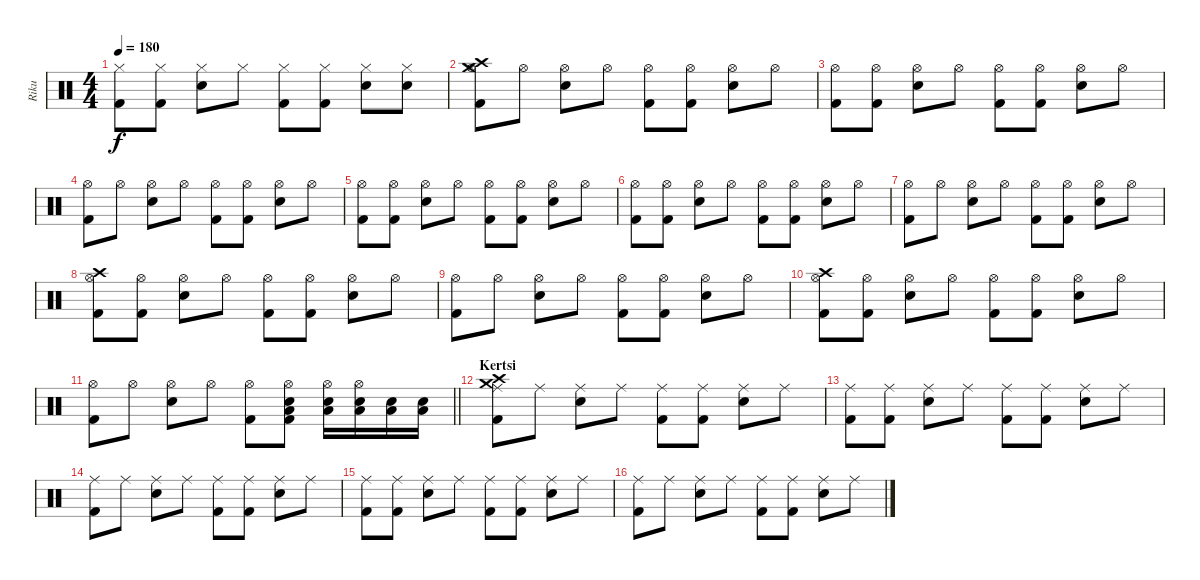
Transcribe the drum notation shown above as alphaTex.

\track ("Riku" "Riku") {instrument percussion}
\staff {score}
\articulation defaults
\ts (4 4)
\tempo 180
\clef neutral
\ks c
("Kick (hit) 2" "Hi-Hat (closed)").8{dy f} ("Kick (hit) 2" "Hi-Hat (closed)").8 ("Snare (hit) 2" "Hi-Hat (closed)").8 "Hi-Hat (closed)".8 ("Kick (hit) 2" "Hi-Hat (closed)").8 ("Kick (hit) 2" "Hi-Hat (closed)").8 ("Snare (hit) 2" "Hi-Hat (closed)").8 ("Snare (hit) 2" "Hi-Hat (closed)").8 |
("Kick (hit) 2" "Hi-Hat (open)" "Crash medium (hit)" "Crash high (hit)").8 "Hi-Hat (open)".8 ("Snare (hit) 2" "Hi-Hat (open)").8 "Hi-Hat (open)".8 ("Kick (hit) 2" "Hi-Hat (open)").8 ("Kick (hit) 2" "Hi-Hat (open)").8 ("Snare (hit) 2" "Hi-Hat (open)").8 "Hi-Hat (open)".8 |
("Kick (hit) 2" "Hi-Hat (open)").8 ("Kick (hit) 2" "Hi-Hat (open)").8 ("Snare (hit) 2" "Hi-Hat (open)").8 "Hi-Hat (open)".8 ("Kick (hit) 2" "Hi-Hat (open)").8 ("Kick (hit) 2" "Hi-Hat (open)").8 ("Snare (hit) 2" "Hi-Hat (open)").8 "Hi-Hat (open)".8 |
("Kick (hit) 2" "Hi-Hat (open)").8 "Hi-Hat (open)".8 ("Snare (hit) 2" "Hi-Hat (open)").8 "Hi-Hat (open)".8 ("Kick (hit) 2" "Hi-Hat (open)").8 ("Kick (hit) 2" "Hi-Hat (open)").8 ("Snare (hit) 2" "Hi-Hat (open)").8 "Hi-Hat (open)".8 |
("Kick (hit) 2" "Hi-Hat (open)").8 ("Kick (hit) 2" "Hi-Hat (open)").8 ("Snare (hit) 2" "Hi-Hat (open)").8 "Hi-Hat (open)".8 ("Kick (hit) 2" "Hi-Hat (open)").8 ("Kick (hit) 2" "Hi-Hat (open)").8 ("Snare (hit) 2" "Hi-Hat (open)").8 "Hi-Hat (open)".8 |
("Kick (hit) 2" "Hi-Hat (open)").8 ("Kick (hit) 2" "Hi-Hat (open)").8 ("Snare (hit) 2" "Hi-Hat (open)").8 "Hi-Hat (open)".8 ("Kick (hit) 2" "Hi-Hat (open)").8 ("Kick (hit) 2" "Hi-Hat (open)").8 ("Snare (hit) 2" "Hi-Hat (open)").8 "Hi-Hat (open)".8 |
("Kick (hit) 2" "Hi-Hat (open)").8 "Hi-Hat (open)".8 ("Snare (hit) 2" "Hi-Hat (open)").8 "Hi-Hat (open)".8 ("Kick (hit) 2" "Hi-Hat (open)").8 ("Kick (hit) 2" "Hi-Hat (open)").8 ("Snare (hit) 2" "Hi-Hat (open)").8 "Hi-Hat (open)".8 |
("Kick (hit) 2" "Hi-Hat (open)" "Crash high (hit)").8 ("Kick (hit) 2" "Hi-Hat (open)").8 ("Snare (hit) 2" "Hi-Hat (open)").8 "Hi-Hat (open)".8 ("Kick (hit) 2" "Hi-Hat (open)").8 ("Kick (hit) 2" "Hi-Hat (open)").8 ("Snare (hit) 2" "Hi-Hat (open)").8 "Hi-Hat (open)".8 |
("Kick (hit) 2" "Hi-Hat (open)").8 "Hi-Hat (open)".8 ("Snare (hit) 2" "Hi-Hat (open)").8 "Hi-Hat (open)".8 ("Kick (hit) 2" "Hi-Hat (open)").8 ("Kick (hit) 2" "Hi-Hat (open)").8 ("Snare (hit) 2" "Hi-Hat (open)").8 "Hi-Hat (open)".8 |
("Kick (hit) 2" "Hi-Hat (open)" "Crash high (hit)").8 ("Kick (hit) 2" "Hi-Hat (open)").8 ("Snare (hit) 2" "Hi-Hat (open)").8 "Hi-Hat (open)".8 ("Kick (hit) 2" "Hi-Hat (open)").8 ("Kick (hit) 2" "Hi-Hat (open)").8 ("Snare (hit) 2" "Hi-Hat (open)").8 "Hi-Hat (open)".8 |
\barLineRight lightlight
("Kick (hit) 2" "Hi-Hat (open)").8 "Hi-Hat (open)".8 ("Snare (hit) 2" "Hi-Hat (open)").8 "Hi-Hat (open)".8 ("Kick (hit) 2" "Hi-Hat (open)").8 ("Snare (hit) 2" "Kick (hit) 2" "Hi-Hat (open)" "Low Floor Tom (hit)").8 ("Snare (hit) 2" "Hi-Hat (open)" "Low Floor Tom (hit)").16 ("Snare (hit) 2" "Hi-Hat (open)" "Low Floor Tom (hit)").16 ("Snare (hit) 2" "Low Floor Tom (hit)").16 ("Snare (hit) 2" "Low Floor Tom (hit)").16 |
\section ("" "Kertsi")
("Kick (hit) 2" "Ride (middle)" "Crash medium (hit)" "Crash high (hit)").8 "Ride (middle)".8 ("Snare (hit) 2" "Ride (middle)").8 "Ride (middle)".8 ("Kick (hit) 2" "Ride (middle)").8 ("Kick (hit) 2" "Ride (middle)").8 ("Snare (hit) 2" "Ride (middle)").8 "Ride (middle)".8 |
("Kick (hit) 2" "Ride (middle)").8 ("Kick (hit) 2" "Ride (middle)").8 ("Snare (hit) 2" "Ride (middle)").8 "Ride (middle)".8 ("Kick (hit) 2" "Ride (middle)").8 ("Kick (hit) 2" "Ride (middle)").8 ("Snare (hit) 2" "Ride (middle)").8 "Ride (middle)".8 |
("Kick (hit) 2" "Ride (middle)").8 "Ride (middle)".8 ("Snare (hit) 2" "Ride (middle)").8 "Ride (middle)".8 ("Kick (hit) 2" "Ride (middle)").8 ("Kick (hit) 2" "Ride (middle)").8 ("Snare (hit) 2" "Ride (middle)").8 "Ride (middle)".8 |
("Kick (hit) 2" "Ride (middle)").8 ("Kick (hit) 2" "Ride (middle)").8 ("Snare (hit) 2" "Ride (middle)").8 "Ride (middle)".8 ("Kick (hit) 2" "Ride (middle)").8 ("Kick (hit) 2" "Ride (middle)").8 ("Snare (hit) 2" "Ride (middle)").8 "Ride (middle)".8 |
("Kick (hit) 2" "Ride (middle)").8 "Ride (middle)".8 ("Snare (hit) 2" "Ride (middle)").8 "Ride (middle)".8 ("Kick (hit) 2" "Ride (middle)").8 ("Kick (hit) 2" "Ride (middle)").8 ("Snare (hit) 2" "Ride (middle)").8 "Ride (middle)".8
